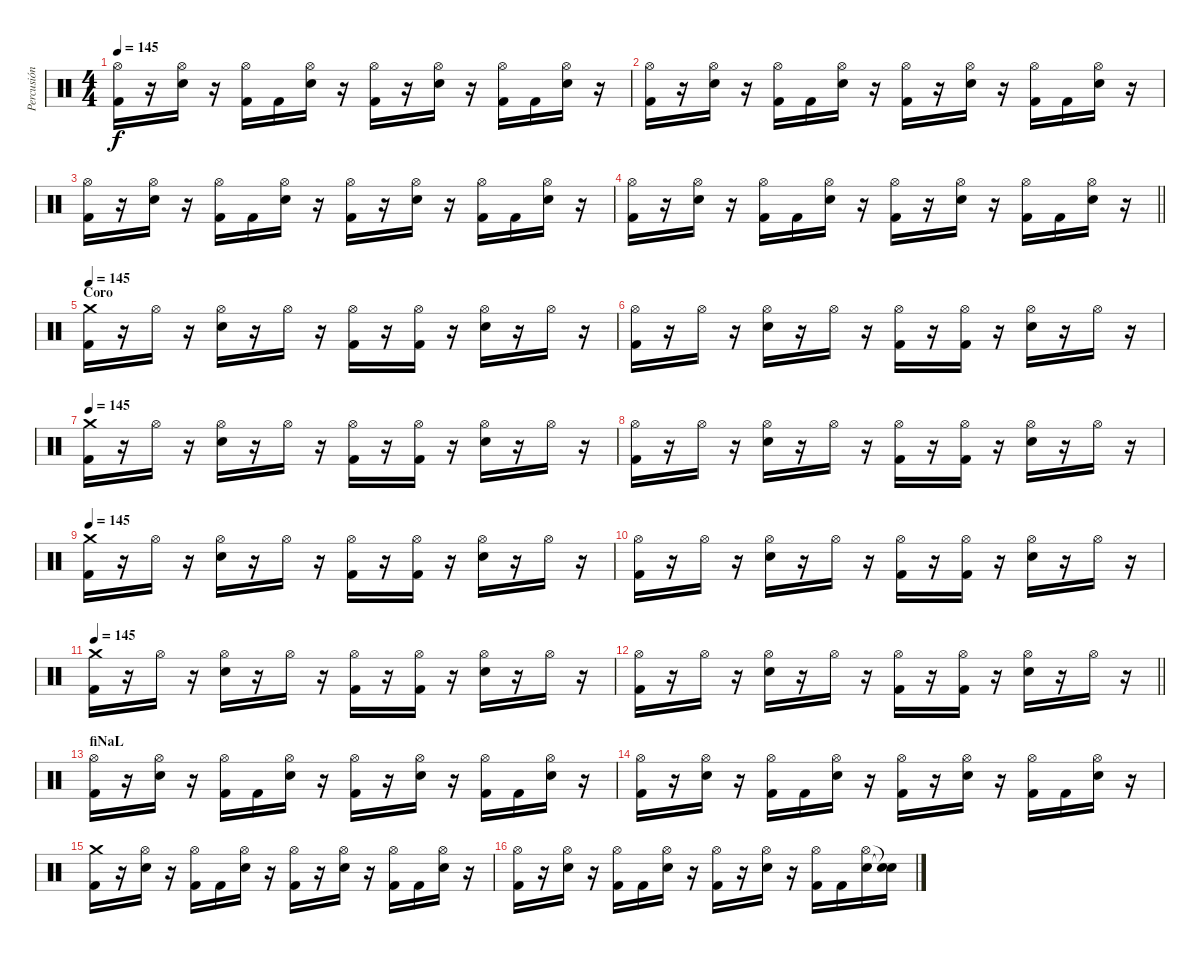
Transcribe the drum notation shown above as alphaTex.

\track ("Percusión" "Percusión") {instrument percussion}
\staff {score}
\articulation defaults
\ts (4 4)
\tempo 145
\clef neutral
\ks c
("Hi-Hat (open)" "Kick (hit) 2").16{dy f} r.16 ("Hi-Hat (open)" "Electric Snare (hit)").16 r.16 ("Hi-Hat (open)" "Kick (hit) 2").16 "Kick (hit) 2".16 ("Hi-Hat (open)" "Electric Snare (hit)").16 r.16 ("Hi-Hat (open)" "Kick (hit) 2").16 r.16 ("Hi-Hat (open)" "Electric Snare (hit)").16 r.16 ("Hi-Hat (open)" "Kick (hit) 2").16 "Kick (hit) 2".16 ("Hi-Hat (open)" "Electric Snare (hit)").16 r.16 |
("Hi-Hat (open)" "Kick (hit) 2").16 r.16 ("Hi-Hat (open)" "Electric Snare (hit)").16 r.16 ("Hi-Hat (open)" "Kick (hit) 2").16 "Kick (hit) 2".16 ("Hi-Hat (open)" "Electric Snare (hit)").16 r.16 ("Hi-Hat (open)" "Kick (hit) 2").16 r.16 ("Hi-Hat (open)" "Electric Snare (hit)").16 r.16 ("Hi-Hat (open)" "Kick (hit) 2").16 "Kick (hit) 2".16 ("Hi-Hat (open)" "Electric Snare (hit)").16 r.16 |
("Hi-Hat (open)" "Kick (hit) 2").16 r.16 ("Hi-Hat (open)" "Electric Snare (hit)").16 r.16 ("Hi-Hat (open)" "Kick (hit) 2").16 "Kick (hit) 2".16 ("Hi-Hat (open)" "Electric Snare (hit)").16 r.16 ("Hi-Hat (open)" "Kick (hit) 2").16 r.16 ("Hi-Hat (open)" "Electric Snare (hit)").16 r.16 ("Hi-Hat (open)" "Kick (hit) 2").16 "Kick (hit) 2".16 ("Hi-Hat (open)" "Electric Snare (hit)").16 r.16 |
\barLineRight lightlight
("Hi-Hat (open)" "Kick (hit) 2").16 r.16 ("Hi-Hat (open)" "Electric Snare (hit)").16 r.16 ("Hi-Hat (open)" "Kick (hit) 2").16 "Kick (hit) 2".16 ("Hi-Hat (open)" "Electric Snare (hit)").16 r.16 ("Hi-Hat (open)" "Kick (hit) 2").16 r.16 ("Hi-Hat (open)" "Electric Snare (hit)").16 r.16 ("Hi-Hat (open)" "Kick (hit) 2").16 "Kick (hit) 2".16 ("Hi-Hat (open)" "Electric Snare (hit)").16 r.16 |
\section ("" "Coro")
\tempo 145
("Crash medium (hit)" "Kick (hit) 2").16 r.16 "Hi-Hat (open)".16 r.16 ("Hi-Hat (open)" "Electric Snare (hit)").16 r.16 "Hi-Hat (open)".16 r.16 ("Hi-Hat (open)" "Kick (hit) 2").16 r.16 ("Hi-Hat (open)" "Kick (hit) 2").16 r.16 ("Hi-Hat (open)" "Electric Snare (hit)").16 r.16 "Hi-Hat (open)".16 r.16 |
("Hi-Hat (open)" "Kick (hit) 2").16 r.16 "Hi-Hat (open)".16 r.16 ("Hi-Hat (open)" "Electric Snare (hit)").16 r.16 "Hi-Hat (open)".16 r.16 ("Hi-Hat (open)" "Kick (hit) 2").16 r.16 ("Hi-Hat (open)" "Kick (hit) 2").16 r.16 ("Hi-Hat (open)" "Electric Snare (hit)").16 r.16 "Hi-Hat (open)".16 r.16 |
\tempo 145
("Crash medium (hit)" "Kick (hit) 2").16 r.16 "Hi-Hat (open)".16 r.16 ("Hi-Hat (open)" "Electric Snare (hit)").16 r.16 "Hi-Hat (open)".16 r.16 ("Hi-Hat (open)" "Kick (hit) 2").16 r.16 ("Hi-Hat (open)" "Kick (hit) 2").16 r.16 ("Hi-Hat (open)" "Electric Snare (hit)").16 r.16 "Hi-Hat (open)".16 r.16 |
("Hi-Hat (open)" "Kick (hit) 2").16 r.16 "Hi-Hat (open)".16 r.16 ("Hi-Hat (open)" "Electric Snare (hit)").16 r.16 "Hi-Hat (open)".16 r.16 ("Hi-Hat (open)" "Kick (hit) 2").16 r.16 ("Hi-Hat (open)" "Kick (hit) 2").16 r.16 ("Hi-Hat (open)" "Electric Snare (hit)").16 r.16 "Hi-Hat (open)".16 r.16 |
\tempo 145
("Crash medium (hit)" "Kick (hit) 2").16 r.16 "Hi-Hat (open)".16 r.16 ("Hi-Hat (open)" "Electric Snare (hit)").16 r.16 "Hi-Hat (open)".16 r.16 ("Hi-Hat (open)" "Kick (hit) 2").16 r.16 ("Hi-Hat (open)" "Kick (hit) 2").16 r.16 ("Hi-Hat (open)" "Electric Snare (hit)").16 r.16 "Hi-Hat (open)".16 r.16 |
("Hi-Hat (open)" "Kick (hit) 2").16 r.16 "Hi-Hat (open)".16 r.16 ("Hi-Hat (open)" "Electric Snare (hit)").16 r.16 "Hi-Hat (open)".16 r.16 ("Hi-Hat (open)" "Kick (hit) 2").16 r.16 ("Hi-Hat (open)" "Kick (hit) 2").16 r.16 ("Hi-Hat (open)" "Electric Snare (hit)").16 r.16 "Hi-Hat (open)".16 r.16 |
\tempo 145
("Crash medium (hit)" "Kick (hit) 2").16 r.16 "Hi-Hat (open)".16 r.16 ("Hi-Hat (open)" "Electric Snare (hit)").16 r.16 "Hi-Hat (open)".16 r.16 ("Hi-Hat (open)" "Kick (hit) 2").16 r.16 ("Hi-Hat (open)" "Kick (hit) 2").16 r.16 ("Hi-Hat (open)" "Electric Snare (hit)").16 r.16 "Hi-Hat (open)".16 r.16 |
\barLineRight lightlight
("Hi-Hat (open)" "Kick (hit) 2").16 r.16 "Hi-Hat (open)".16 r.16 ("Hi-Hat (open)" "Electric Snare (hit)").16 r.16 "Hi-Hat (open)".16 r.16 ("Hi-Hat (open)" "Kick (hit) 2").16 r.16 ("Hi-Hat (open)" "Kick (hit) 2").16 r.16 ("Hi-Hat (open)" "Electric Snare (hit)").16 r.16 "Hi-Hat (open)".16 r.16 |
\section ("" "fiNaL")
("Hi-Hat (open)" "Kick (hit) 2").16 r.16 ("Hi-Hat (open)" "Electric Snare (hit)").16 r.16 ("Hi-Hat (open)" "Kick (hit) 2").16 "Kick (hit) 2".16 ("Hi-Hat (open)" "Electric Snare (hit)").16 r.16 ("Hi-Hat (open)" "Kick (hit) 2").16 r.16 ("Hi-Hat (open)" "Electric Snare (hit)").16 r.16 ("Hi-Hat (open)" "Kick (hit) 2").16 "Kick (hit) 2".16 ("Hi-Hat (open)" "Electric Snare (hit)").16 r.16 |
("Hi-Hat (open)" "Kick (hit) 2").16 r.16 ("Hi-Hat (open)" "Electric Snare (hit)").16 r.16 ("Hi-Hat (open)" "Kick (hit) 2").16 "Kick (hit) 2".16 ("Hi-Hat (open)" "Electric Snare (hit)").16 r.16 ("Hi-Hat (open)" "Kick (hit) 2").16 r.16 ("Hi-Hat (open)" "Electric Snare (hit)").16 r.16 ("Hi-Hat (open)" "Kick (hit) 2").16 "Kick (hit) 2".16 ("Hi-Hat (open)" "Electric Snare (hit)").16 r.16 |
("Crash medium (hit)" "Kick (hit) 2").16 r.16 ("Hi-Hat (open)" "Electric Snare (hit)").16 r.16 ("Hi-Hat (open)" "Kick (hit) 2").16 "Kick (hit) 2".16 ("Hi-Hat (open)" "Electric Snare (hit)").16 r.16 ("Hi-Hat (open)" "Kick (hit) 2").16 r.16 ("Hi-Hat (open)" "Electric Snare (hit)").16 r.16 ("Hi-Hat (open)" "Kick (hit) 2").16 "Kick (hit) 2".16 ("Hi-Hat (open)" "Electric Snare (hit)").16 r.16 |
("Hi-Hat (open)" "Kick (hit) 2").16 r.16 ("Hi-Hat (open)" "Electric Snare (hit)").16 r.16 ("Hi-Hat (open)" "Kick (hit) 2").16 "Kick (hit) 2".16 ("Hi-Hat (open)" "Electric Snare (hit)").16 r.16 ("Hi-Hat (open)" "Kick (hit) 2").16 r.16 ("Hi-Hat (open)" "Electric Snare (hit)").16 r.16 ("Hi-Hat (open)" "Kick (hit) 2").16 "Kick (hit) 2".16 ("Hi-Hat (open)" "Electric Snare (hit)").16 ("Snare (hit)"{t} "Snare (hit)"{t}).16
